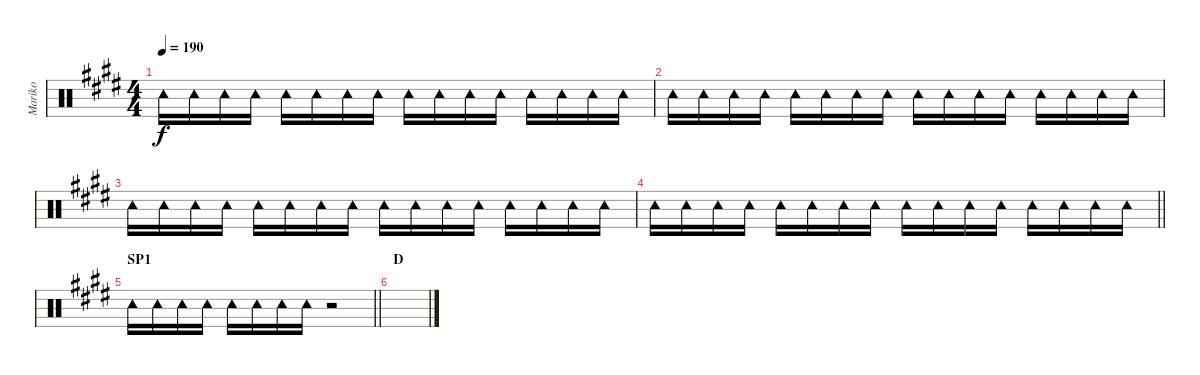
\track ("Mariko" "Mariko") {mute instrument percussion}
\staff {score}
\articulation defaults
\ts (4 4)
\tempo 190
\clef neutral
\ks e "Tambourine (hit)".16{dy f} "Tambourine (hit)".16 "Tambourine (hit)".16 "Tambourine (hit)".16 "Tambourine (hit)".16 "Tambourine (hit)".16 "Tambourine (hit)".16 "Tambourine (hit)".16 "Tambourine (hit)".16 "Tambourine (hit)".16 "Tambourine (hit)".16 "Tambourine (hit)".16 "Tambourine (hit)".16 "Tambourine (hit)".16 "Tambourine (hit)".16 "Tambourine (hit)".16
|
"Tambourine (hit)".16 "Tambourine (hit)".16 "Tambourine (hit)".16 "Tambourine (hit)".16 "Tambourine (hit)".16 "Tambourine (hit)".16 "Tambourine (hit)".16 "Tambourine (hit)".16 "Tambourine (hit)".16 "Tambourine (hit)".16 "Tambourine (hit)".16 "Tambourine (hit)".16 "Tambourine (hit)".16 "Tambourine (hit)".16 "Tambourine (hit)".16 "Tambourine (hit)".16 |
"Tambourine (hit)".16 "Tambourine (hit)".16 "Tambourine (hit)".16 "Tambourine (hit)".16 "Tambourine (hit)".16 "Tambourine (hit)".16 "Tambourine (hit)".16 "Tambourine (hit)".16 "Tambourine (hit)".16 "Tambourine (hit)".16 "Tambourine (hit)".16 "Tambourine (hit)".16 "Tambourine (hit)".16 "Tambourine (hit)".16 "Tambourine (hit)".16 "Tambourine (hit)".16 |
\barLineRight lightlight "Tambourine (hit)".16 "Tambourine (hit)".16 "Tambourine (hit)".16 "Tambourine (hit)".16 "Tambourine (hit)".16 "Tambourine (hit)".16 "Tambourine (hit)".16 "Tambourine (hit)".16 "Tambourine (hit)".16 "Tambourine (hit)".16 "Tambourine (hit)".16 "Tambourine (hit)".16 "Tambourine (hit)".16 "Tambourine (hit)".16 "Tambourine (hit)".16 "Tambourine (hit)".16
|
\section ("" "SP1")
\barLineRight lightlight "Tambourine (hit)".16 "Tambourine (hit)".16 "Tambourine (hit)".16 "Tambourine (hit)".16 "Tambourine (hit)".16 "Tambourine (hit)".16 "Tambourine (hit)".16 "Tambourine (hit)".16
r.2 |
\section ("" "D")
